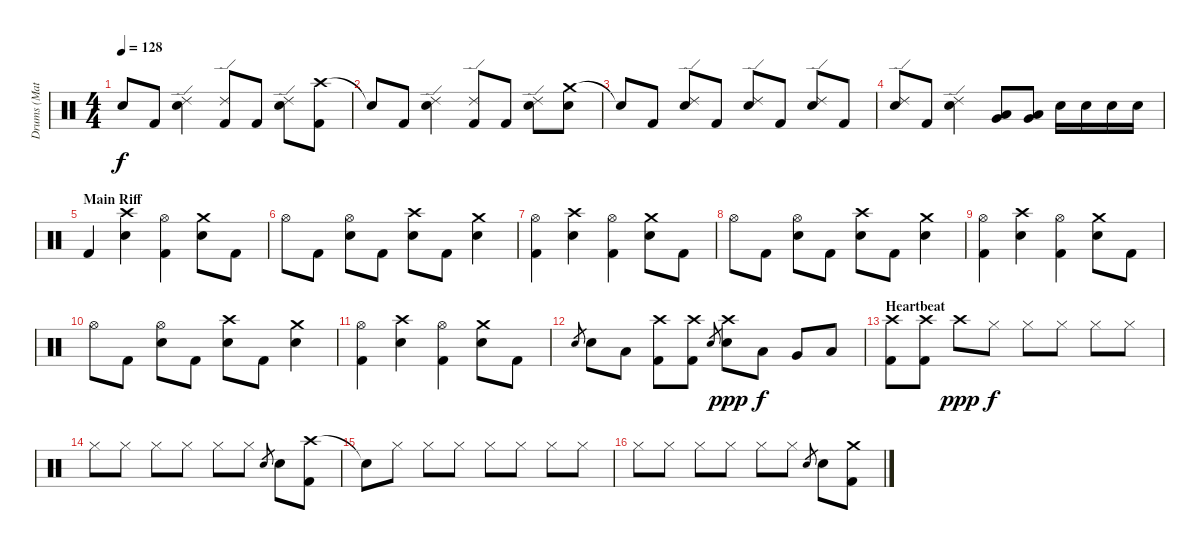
\track ("Drums (Matt)" "Drums (Mat") {instrument percussion}
\staff {score}
\articulation defaults
\ts (4 4)
\tempo 128
\clef neutral
\ks c "Snare (hit)"{t}.8{dy f} "Kick (hit) 2".8
("Ride (edge) 2" "Snare (hit) 2").4 ("Ride (edge) 2" "Kick (hit) 2").8 "Kick (hit) 2".8 ("Ride (edge) 2" "Snare (hit) 2").8 ("Crash high (hit)" "Kick (hit) 2").8 |
"Snare (hit)"{t}.8 "Kick (hit) 2".8 ("Ride (edge) 2" "Snare (hit) 2").4 ("Ride (edge) 2" "Kick (hit) 2").8 "Kick (hit) 2".8 ("Ride (edge) 2" "Snare (hit) 2").8 ("Crash medium (hit)" "Snare (hit) 2").8 |
"Snare (hit)"{t}.8 "Kick (hit) 2".8 ("Ride (edge) 2" "Snare (hit) 2").8 "Kick (hit) 2".8 ("Ride (edge) 2" "Snare (hit) 2").8 "Kick (hit) 2".8 ("Ride (edge) 2" "Snare (hit) 2").8 "Kick (hit) 2".8 |
("Ride (edge) 2" "Snare (hit) 2").8 "Kick (hit) 2".8 ("Ride (edge) 2" "Snare (hit) 2").4 ("Low Tom (hit)" "Very Low Tom (hit)").8 ("Low Tom (hit)" "Very Low Tom (hit)").8 "Snare (hit) 2".16 "Snare (hit) 2".16 "Snare (hit) 2".16 "Snare (hit) 2".16 |
\section ("" "Main Riff")
"Kick (hit) 2".4 ("Crash high (hit)" "Snare (hit) 2").4 ("Hi-Hat (open)" "Kick (hit) 2").4 ("Crash medium (hit)" "Snare (hit) 2").8 "Kick (hit) 2".8 |
"Hi-Hat (open)".8 "Kick (hit) 2".8 ("Hi-Hat (open)" "Snare (hit) 2").8 "Kick (hit) 2".8 ("Crash high (hit)" "Snare (hit) 2").8 "Kick (hit) 2".8 ("Crash medium (hit)" "Snare (hit) 2").4 |
("Hi-Hat (open)" "Kick (hit) 2").4 ("Crash high (hit)" "Snare (hit) 2").4 ("Hi-Hat (open)" "Kick (hit) 2").4 ("Crash medium (hit)" "Snare (hit) 2").8 "Kick (hit) 2".8 |
"Hi-Hat (open)".8 "Kick (hit) 2".8 ("Hi-Hat (open)" "Snare (hit) 2").8 "Kick (hit) 2".8 ("Crash high (hit)" "Snare (hit) 2").8 "Kick (hit) 2".8 ("Crash medium (hit)" "Snare (hit) 2").4 |
("Hi-Hat (open)" "Kick (hit) 2").4 ("Crash high (hit)" "Snare (hit) 2").4 ("Hi-Hat (open)" "Kick (hit) 2").4 ("Crash medium (hit)" "Snare (hit) 2").8 "Kick (hit) 2".8 |
"Hi-Hat (open)".8 "Kick (hit) 2".8 ("Hi-Hat (open)" "Snare (hit) 2").8 "Kick (hit) 2".8 ("Crash high (hit)" "Snare (hit) 2").8 "Kick (hit) 2".8 ("Crash medium (hit)" "Snare (hit) 2").4 |
("Hi-Hat (open)" "Kick (hit) 2").4 ("Crash high (hit)" "Snare (hit) 2").4 ("Hi-Hat (open)" "Kick (hit) 2").4 ("Crash medium (hit)" "Snare (hit) 2").8 "Kick (hit) 2".8 |
"Snare (hit) 2".8{gr} "Snare (hit) 2".8 "Low Tom (hit)".8 ("Crash high (hit)" "Kick (hit) 2").8 ("Crash high (hit)" "Kick (hit) 2").8 "Snare (hit) 2".8{gr} ("Crash high (hit)" "Snare (hit) 2").8{dy ppp} "Low Tom (hit)".8{dy f} "Very Low Tom (hit)".8 "Low Floor Tom (hit)".8 |
\section ("" "Heartbeat")
("Crash high (hit)" "Kick (hit) 2").8 ("Crash high (hit)" "Kick (hit) 2").8 "Crash high (hit)".8{dy ppp} "Hi-Hat (closed)".8{dy f} "Hi-Hat (closed)".8 "Hi-Hat (closed)".8 "Hi-Hat (closed)".8 "Hi-Hat (closed)".8 |
"Hi-Hat (closed)".8 "Hi-Hat (closed)".8 "Hi-Hat (closed)".8 "Hi-Hat (closed)".8 "Hi-Hat (closed)".8 "Hi-Hat (closed)".8 "Snare (hit) 2".8{gr} "Snare (hit) 2".8 ("Crash high (hit)" "Kick (hit) 2").8 |
"Snare (hit)"{t}.8 "Hi-Hat (closed)".8 "Hi-Hat (closed)".8 "Hi-Hat (closed)".8 "Hi-Hat (closed)".8 "Hi-Hat (closed)".8 "Hi-Hat (closed)".8 "Hi-Hat (closed)".8 |
"Hi-Hat (closed)".8 "Hi-Hat (closed)".8 "Hi-Hat (closed)".8 "Hi-Hat (closed)".8 "Hi-Hat (closed)".8 "Hi-Hat (closed)".8 "Snare (hit) 2".8{gr} "Snare (hit) 2".8 ("Crash medium (hit)" "Kick (hit) 2").8
